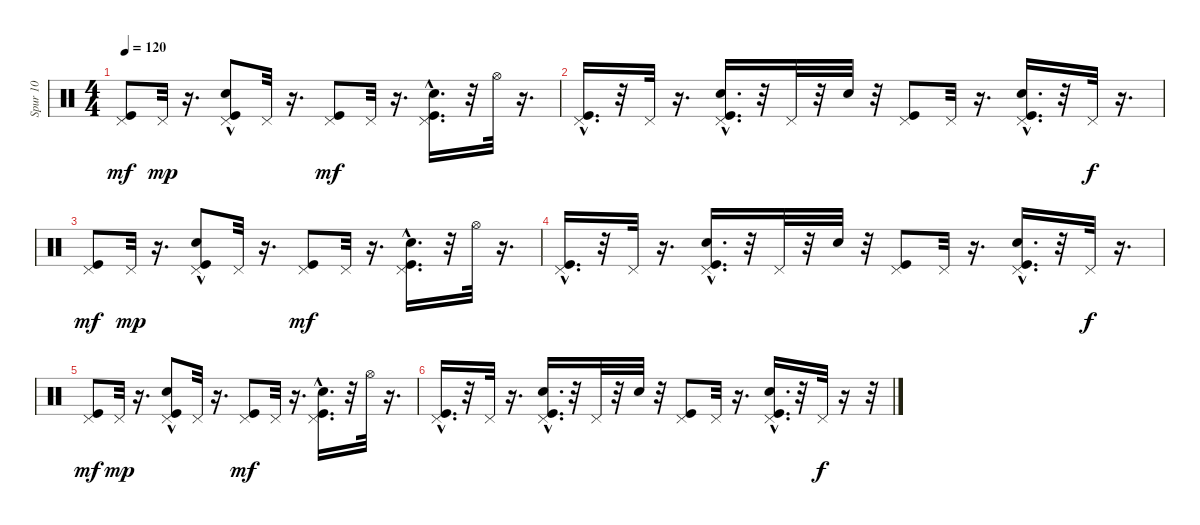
\track ("Spur 10" "Spur 10") {instrument percussion}
\staff {score}
\articulation defaults
\ts (4 4)
\tempo 120
\clef neutral
\ks c
("Kick (hit)" "Pedal Hi-Hat (hit)").8{dy mf} "Pedal Hi-Hat (hit)".32{dy mp} r.16{d} ("Kick (hit)" "Snare (hit) 2"{hac} "Pedal Hi-Hat (hit)").8 "Pedal Hi-Hat (hit)".32 r.16{d} ("Kick (hit)" "Pedal Hi-Hat (hit)").8{dy mf} "Pedal Hi-Hat (hit)".32 r.16{d} ("Snare (hit) 2" "Kick (hit)"{hac} "Pedal Hi-Hat (hit)").16{d} r.32 "Hi-Hat (open)".32 r.16{d} |
("Kick (hit)"{hac} "Pedal Hi-Hat (hit)").16{d} r.32 "Pedal Hi-Hat (hit)".32 r.16{d} ("Kick (hit)"{hac} "Snare (hit) 2" "Pedal Hi-Hat (hit)").16{d} r.32 "Pedal Hi-Hat (hit)".32 r.32 "Snare (hit) 2".32 r.32 ("Kick (hit)" "Pedal Hi-Hat (hit)").8 "Pedal Hi-Hat (hit)".32 r.16{d} ("Snare (hit) 2" "Kick (hit)"{hac} "Pedal Hi-Hat (hit)").16{d} r.32 "Pedal Hi-Hat (hit)".32{dy f} r.16{d} |
("Kick (hit)" "Pedal Hi-Hat (hit)").8{dy mf} "Pedal Hi-Hat (hit)".32{dy mp} r.16{d} ("Kick (hit)" "Snare (hit) 2"{hac} "Pedal Hi-Hat (hit)").8 "Pedal Hi-Hat (hit)".32 r.16{d} ("Kick (hit)" "Pedal Hi-Hat (hit)").8{dy mf} "Pedal Hi-Hat (hit)".32 r.16{d} ("Snare (hit) 2" "Kick (hit)"{hac} "Pedal Hi-Hat (hit)").16{d} r.32 "Hi-Hat (open)".32 r.16{d} |
("Kick (hit)"{hac} "Pedal Hi-Hat (hit)").16{d} r.32 "Pedal Hi-Hat (hit)".32 r.16{d} ("Kick (hit)"{hac} "Snare (hit) 2" "Pedal Hi-Hat (hit)").16{d} r.32 "Pedal Hi-Hat (hit)".32 r.32 "Snare (hit) 2".32 r.32 ("Kick (hit)" "Pedal Hi-Hat (hit)").8 "Pedal Hi-Hat (hit)".32 r.16{d} ("Snare (hit) 2" "Kick (hit)"{hac} "Pedal Hi-Hat (hit)").16{d} r.32 "Pedal Hi-Hat (hit)".32{dy f} r.16{d} |
("Kick (hit)" "Pedal Hi-Hat (hit)").8{dy mf} "Pedal Hi-Hat (hit)".32{dy mp} r.16{d} ("Kick (hit)" "Snare (hit) 2"{hac} "Pedal Hi-Hat (hit)").8 "Pedal Hi-Hat (hit)".32 r.16{d} ("Kick (hit)" "Pedal Hi-Hat (hit)").8{dy mf} "Pedal Hi-Hat (hit)".32 r.16{d} ("Snare (hit) 2" "Kick (hit)"{hac} "Pedal Hi-Hat (hit)").16{d} r.32 "Hi-Hat (open)".32 r.16{d} |
("Kick (hit)"{hac} "Pedal Hi-Hat (hit)").16{d} r.32 "Pedal Hi-Hat (hit)".32 r.16{d} ("Kick (hit)"{hac} "Snare (hit) 2" "Pedal Hi-Hat (hit)").16{d} r.32 "Pedal Hi-Hat (hit)".32 r.32 "Snare (hit) 2".32 r.32 ("Kick (hit)" "Pedal Hi-Hat (hit)").8 "Pedal Hi-Hat (hit)".32 r.16{d} ("Snare (hit) 2" "Kick (hit)"{hac} "Pedal Hi-Hat (hit)").16{d} r.32 "Pedal Hi-Hat (hit)".32{dy f} r.16 r.32
